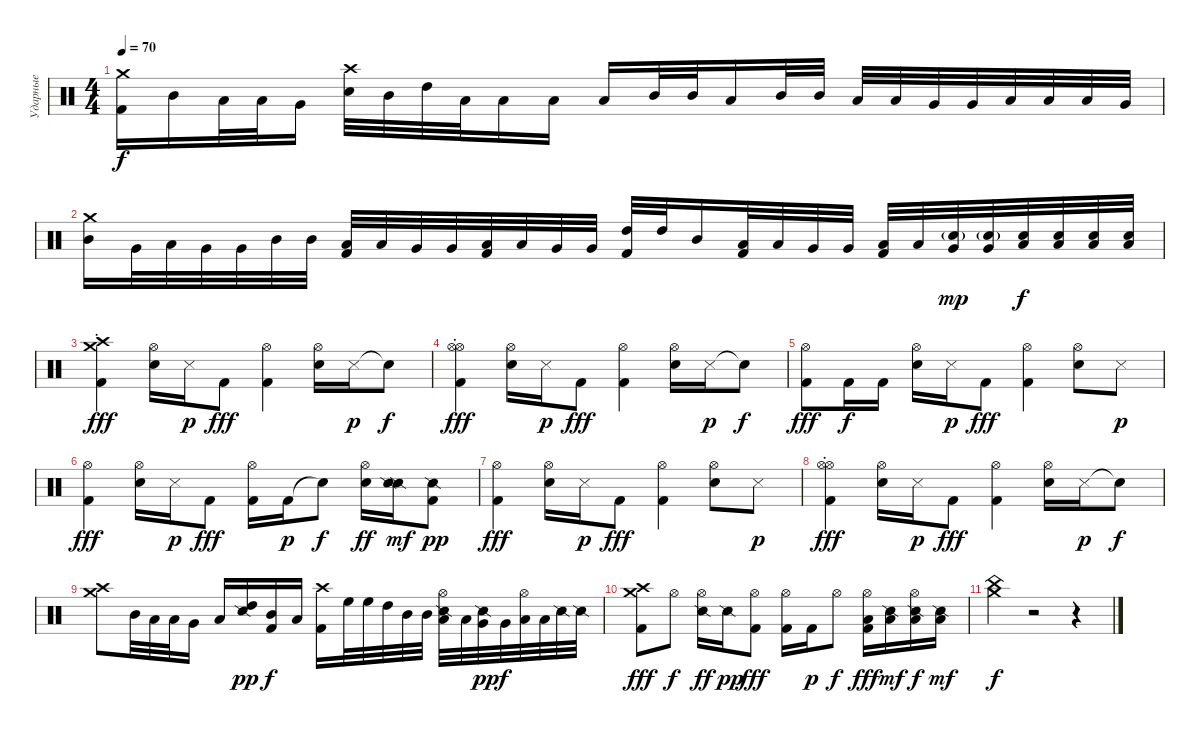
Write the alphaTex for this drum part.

\track ("Ударные" "Ударные") {instrument percussion}
\staff {score}
\articulation defaults
\ts (4 4)
\tempo 70
\clef neutral
\ks c
("Crash medium (hit)" "Kick (hit) 2").16{dy f} "Mid Tom (hit)".16 "Low Tom (hit)".32 "Low Tom (hit)".32 "Very Low Tom (hit)".16 ("Crash high (hit)" "Electric Snare (hit)").32 "Mid Tom (hit)".32 "High Tom (hit)".32 "Low Tom (hit)".32 "Low Tom (hit)".16 "Low Tom (hit)".16 "Low Tom (hit)".16 "Mid Tom (hit)".32 "Mid Tom (hit)".32 "Low Tom (hit)".16 "Mid Tom (hit)".32 "Mid Tom (hit)".32 "Low Tom (hit)".32 "Low Tom (hit)".32 "Very Low Tom (hit)".32 "Very Low Tom (hit)".32 "Low Floor Tom (hit)".32 "Low Floor Tom (hit)".32 "Low Floor Tom (hit)".32 "Very Low Tom (hit)".32 |
("Crash medium (hit)" "Mid Tom (hit)").16 "Very Low Tom (hit)".32 "Low Tom (hit)".32 "Very Low Tom (hit)".32 "Very Low Tom (hit)".32 "Mid Tom (hit)".32 "Mid Tom (hit)".32 ("Kick (hit) 2" "Low Tom (hit)").32 "Low Tom (hit)".32 "Very Low Tom (hit)".32 "Very Low Tom (hit)".32 ("Kick (hit) 2" "Low Floor Tom (hit)").32 "Low Floor Tom (hit)".32 "Very Low Tom (hit)".32 "Very Low Tom (hit)".32 ("Kick (hit) 2" "High Tom (hit)").32 "High Tom (hit)".32 "Mid Tom (hit)".16 ("Kick (hit) 2" "Low Tom (hit)").32 "Low Tom (hit)".32 "Very Low Tom (hit)".32 "Very Low Tom (hit)".32 ("Kick (hit) 2" "Low Tom (hit)").32 "Low Tom (hit)".32 ("Electric Snare (hit)"{g} "Very Low Tom (hit)").32{dy mp} ("Electric Snare (hit)"{g} "Very Low Tom (hit)").32 ("Electric Snare (hit)" "Low Floor Tom (hit)").32{dy f} ("Electric Snare (hit)" "Low Floor Tom (hit)").32 ("Electric Snare (hit)" "Low Floor Tom (hit)").32 ("Electric Snare (hit)" "Low Floor Tom (hit)").32 |
("Crash medium (hit)" "Crash high (hit)"{st} "Kick (hit) 2").4{dy fff} ("Hi-Hat (open)" "Electric Snare (hit)").16 "Snare (side stick) 3".16{dy p} "Kick (hit) 2".8{dy fff} ("Hi-Hat (open)" "Kick (hit) 2").4 ("Hi-Hat (open)" "Electric Snare (hit)").16 "Snare (side stick) 3".16{dy p} "Snare (hit)"{t}.8{dy f} |
("Hi-Hat (open)" "Hi-Hat (open)"{st} "Kick (hit) 2").4{dy fff} ("Hi-Hat (open)" "Electric Snare (hit)").16 "Snare (side stick) 3".16{dy p} "Kick (hit) 2".8{dy fff} ("Hi-Hat (open)" "Kick (hit) 2").4 ("Hi-Hat (open)" "Electric Snare (hit)").16 "Snare (side stick) 3".16{dy p} "Snare (hit)"{t}.8{dy f} |
("Hi-Hat (open)" "Kick (hit) 2").8{dy fff} "Kick (hit) 2".16{dy f} "Kick (hit) 2".16 ("Electric Snare (hit)" "Hi-Hat (open)").16 "Snare (side stick) 3".16{dy p} "Kick (hit) 2".8{dy fff} ("Hi-Hat (open)" "Kick (hit) 2").4 ("Hi-Hat (open)" "Electric Snare (hit)").8 "Snare (side stick) 3".8{dy p} |
("Hi-Hat (open)" "Kick (hit) 2").4{dy fff} ("Electric Snare (hit)" "Hi-Hat (open)").16 "Snare (side stick) 3".16{dy p} "Kick (hit) 2".8{dy fff} ("Hi-Hat (open)" "Kick (hit) 2").16 "Kick (hit) 2".16{dy p} "Snare (hit)"{t}.8{dy f} ("Hi-Hat (open)" "Electric Snare (hit)").16{dy ff} ("Snare (side stick) 2" "Snare (side stick) 2").16{dy mf} ("Kick (hit) 2" "Snare (side stick) 2").8{dy pp} |
("Hi-Hat (open)" "Kick (hit) 2").4{dy fff} ("Hi-Hat (open)" "Electric Snare (hit)").16 "Snare (side stick) 3".16{dy p} "Kick (hit) 2".8{dy fff} ("Hi-Hat (open)" "Kick (hit) 2").4 ("Hi-Hat (open)" "Electric Snare (hit)").8 "Snare (side stick) 3".8{dy p} |
("Hi-Hat (open)" "Hi-Hat (open)"{st} "Kick (hit) 2").4{dy fff} ("Hi-Hat (open)" "Electric Snare (hit)").16 "Snare (side stick) 3".16{dy p} "Kick (hit) 2".8{dy fff} ("Hi-Hat (open)" "Kick (hit) 2").4 ("Hi-Hat (open)" "Electric Snare (hit)").16 "Snare (side stick) 3".16{dy p} "Snare (hit)"{t}.8{dy f} |
("Crash medium (hit)" "Crash high (hit)").8 "Mid Tom (hit)".32 "Low Tom (hit)".32 "Low Tom (hit)".32 "Very Low Tom (hit)".16 "Low Tom (hit)".16 ("Snare (side stick) 2" "High Tom (hit)").16{dy pp} ("Kick (hit) 2" "Mid Tom (hit)").16{dy f} "Low Tom (hit)".16 ("Crash high (hit)" "Kick (hit) 2").16 "High Floor Tom (hit)".32 "High Floor Tom (hit)".32 "High Tom (hit)".32 "Mid Tom (hit)".32 "Mid Tom (hit)".32 ("Hi-Hat (open)" "Snare (side stick) 2" "Low Tom (hit)").32 "Low Tom (hit)".32 ("Snare (side stick) 2" "Very Low Tom (hit)").32{dy pp} "Very Low Tom (hit)".32{dy f} ("Hi-Hat (open)" "Low Floor Tom (hit)").32 "Low Floor Tom (hit)".32 "Snare (side stick) 2".32 "Snare (side stick) 2".32 |
("Crash medium (hit)" "Kick (hit) 2" "Crash high (hit)").8{dy fff} "Hi-Hat (open)".8{dy f} ("Hi-Hat (open)" "Snare (side stick) 2").16{dy ff} "Snare (side stick) 2".16{dy pp} ("Hi-Hat (open)" "Kick (hit) 2").8{dy fff} ("Kick (hit) 2" "Hi-Hat (open)").16 "Kick (hit) 2".16{dy p} "Hi-Hat (open)".8{dy f} ("Low Floor Tom (hit)" "Kick (hit) 2" "Hi-Hat (open)").16{dy fff} ("Low Floor Tom (hit)" "Snare (side stick) 2").16{dy mf} ("Low Floor Tom (hit)" "Hi-Hat (open)" "Snare (side stick) 2").16{dy f} ("Low Floor Tom (hit)" "Snare (side stick) 2").16{dy mf} |
("Crash medium (hit)" "China (hit)").4{dy f} r.2 r.4
